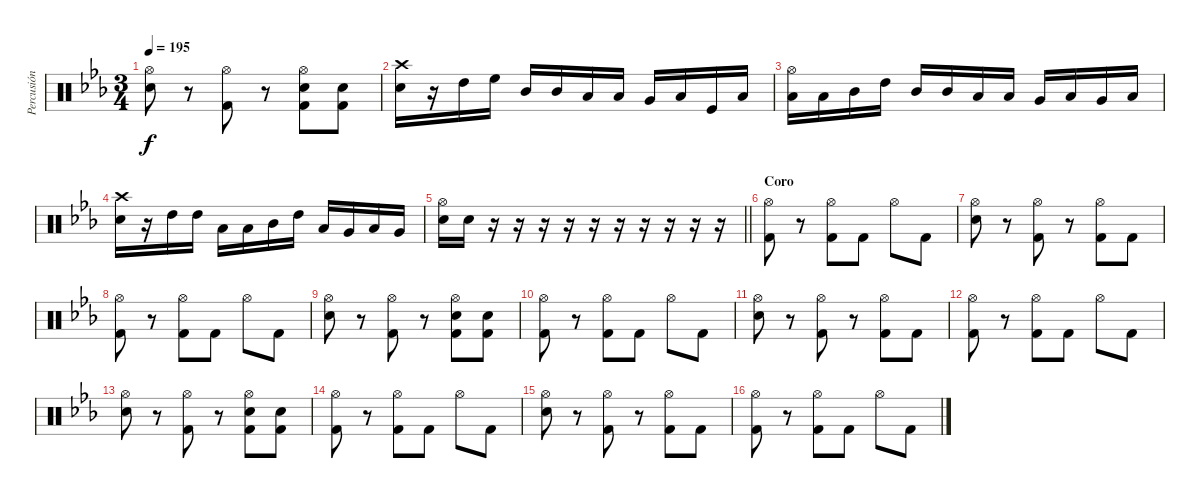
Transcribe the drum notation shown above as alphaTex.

\track ("Percusión" "Percusión") {instrument percussion}
\staff {score}
\articulation defaults
\ts (3 4)
\tempo 195
\clef neutral
\ks eb
("Hi-Hat (open)" "Snare (hit) 2").8{dy f} r.8 ("Hi-Hat (open)" "Kick (hit) 2").8 r.8 ("Hi-Hat (open)" "Snare (hit) 2" "Kick (hit) 2").8 ("Snare (hit) 2" "Kick (hit) 2").8 |
("Crash high (hit)" "Snare (hit) 2").16 r.16 "High Tom (hit)".16 "High Floor Tom (hit)".16 "Mid Tom (hit)".16 "Mid Tom (hit)".16 "Low Tom (hit)".16 "Low Tom (hit)".16 "Very Low Tom (hit)".16 "Low Floor Tom (hit)".16 "Kick (hit)".16 "Low Floor Tom (hit)".16 |
("Hi-Hat (open)" "Low Tom (hit)").16 "Low Tom (hit)".16 "Mid Tom (hit)".16 "High Tom (hit)".16 "Mid Tom (hit)".16 "Mid Tom (hit)".16 "Low Tom (hit)".16 "Low Tom (hit)".16 "Very Low Tom (hit)".16 "Low Floor Tom (hit)".16 "Very Low Tom (hit)".16 "Low Floor Tom (hit)".16 |
("Crash high (hit)" "Snare (hit) 2").16 r.16 "High Tom (hit)".16 "High Tom (hit)".16 "Low Tom (hit)".16 "Low Tom (hit)".16 "Mid Tom (hit)".16 "High Tom (hit)".16 "Low Tom (hit)".16 "Very Low Tom (hit)".16 "Low Tom (hit)".16 "Very Low Tom (hit)".16 |
\barLineRight lightlight
("Hi-Hat (open)" "Snare (hit) 2").16 "Snare (hit) 2".16 r.16 r.16 r.16 r.16 r.16 r.16 r.16 r.16 r.16 r.16 |
\section ("" "Coro")
("Hi-Hat (open)" "Kick (hit) 2").8 r.8 ("Hi-Hat (open)" "Kick (hit) 2").8 "Kick (hit) 2".8 "Hi-Hat (open)".8 "Kick (hit) 2".8 |
("Hi-Hat (open)" "Snare (hit) 2").8 r.8 ("Hi-Hat (open)" "Kick (hit) 2").8 r.8 ("Hi-Hat (open)" "Kick (hit) 2").8 "Kick (hit) 2".8 |
("Hi-Hat (open)" "Kick (hit) 2").8 r.8 ("Hi-Hat (open)" "Kick (hit) 2").8 "Kick (hit) 2".8 "Hi-Hat (open)".8 "Kick (hit) 2".8 |
("Hi-Hat (open)" "Snare (hit) 2").8 r.8 ("Hi-Hat (open)" "Kick (hit) 2").8 r.8 ("Hi-Hat (open)" "Snare (hit) 2" "Kick (hit) 2").8 ("Snare (hit) 2" "Kick (hit) 2").8 |
("Hi-Hat (open)" "Kick (hit) 2").8 r.8 ("Hi-Hat (open)" "Kick (hit) 2").8 "Kick (hit) 2".8 "Hi-Hat (open)".8 "Kick (hit) 2".8 |
("Hi-Hat (open)" "Snare (hit) 2").8 r.8 ("Hi-Hat (open)" "Kick (hit) 2").8 r.8 ("Hi-Hat (open)" "Kick (hit) 2").8 "Kick (hit) 2".8 |
("Hi-Hat (open)" "Kick (hit) 2").8 r.8 ("Hi-Hat (open)" "Kick (hit) 2").8 "Kick (hit) 2".8 "Hi-Hat (open)".8 "Kick (hit) 2".8 |
("Hi-Hat (open)" "Snare (hit) 2").8 r.8 ("Hi-Hat (open)" "Kick (hit) 2").8 r.8 ("Hi-Hat (open)" "Snare (hit) 2" "Kick (hit) 2").8 ("Snare (hit) 2" "Kick (hit) 2").8 |
("Hi-Hat (open)" "Kick (hit) 2").8 r.8 ("Hi-Hat (open)" "Kick (hit) 2").8 "Kick (hit) 2".8 "Hi-Hat (open)".8 "Kick (hit) 2".8 |
("Hi-Hat (open)" "Snare (hit) 2").8 r.8 ("Hi-Hat (open)" "Kick (hit) 2").8 r.8 ("Hi-Hat (open)" "Kick (hit) 2").8 "Kick (hit) 2".8 |
("Hi-Hat (open)" "Kick (hit) 2").8 r.8 ("Hi-Hat (open)" "Kick (hit) 2").8 "Kick (hit) 2".8 "Hi-Hat (open)".8 "Kick (hit) 2".8
